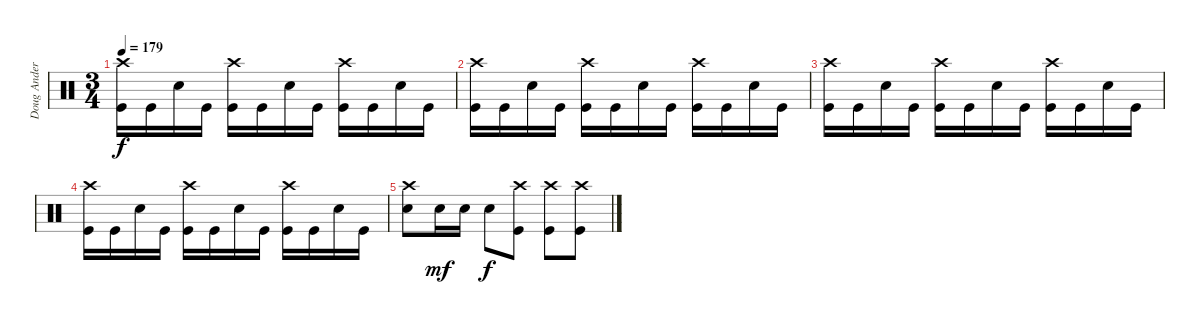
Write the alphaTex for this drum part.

\track ("Doug Anderson" "Doug Ander") {instrument percussion}
\staff {score}
\articulation defaults
\ts (3 4)
\tempo 179
\clef neutral
\ks c
("Kick (hit)" "Crash high (hit)").16{dy f} "Kick (hit)".16 "Snare (hit) 2".16 "Kick (hit)".16 ("Kick (hit)" "Crash high (hit)").16 "Kick (hit)".16 "Snare (hit) 2".16 "Kick (hit)".16 ("Kick (hit)" "Crash high (hit)").16 "Kick (hit)".16 "Snare (hit) 2".16 "Kick (hit)".16 |
("Kick (hit)" "Crash high (hit)").16 "Kick (hit)".16 "Snare (hit) 2".16 "Kick (hit)".16 ("Kick (hit)" "Crash high (hit)").16 "Kick (hit)".16 "Snare (hit) 2".16 "Kick (hit)".16 ("Kick (hit)" "Crash high (hit)").16 "Kick (hit)".16 "Snare (hit) 2".16 "Kick (hit)".16 |
("Kick (hit)" "Crash high (hit)").16 "Kick (hit)".16 "Snare (hit) 2".16 "Kick (hit)".16 ("Kick (hit)" "Crash high (hit)").16 "Kick (hit)".16 "Snare (hit) 2".16 "Kick (hit)".16 ("Kick (hit)" "Crash high (hit)").16 "Kick (hit)".16 "Snare (hit) 2".16 "Kick (hit)".16 |
("Kick (hit)" "Crash high (hit)").16 "Kick (hit)".16 "Snare (hit) 2".16 "Kick (hit)".16 ("Kick (hit)" "Crash high (hit)").16 "Kick (hit)".16 "Snare (hit) 2".16 "Kick (hit)".16 ("Kick (hit)" "Crash high (hit)").16 "Kick (hit)".16 "Snare (hit) 2".16 "Kick (hit)".16 |
("Crash high (hit)" "Snare (hit) 2").8 "Snare (hit) 2".16{dy mf} "Snare (hit) 2".16 "Snare (hit) 2".8{dy f} ("Kick (hit)" "Crash high (hit)").8 ("Kick (hit)" "Crash high (hit)").8 ("Kick (hit)" "Crash high (hit)").8
